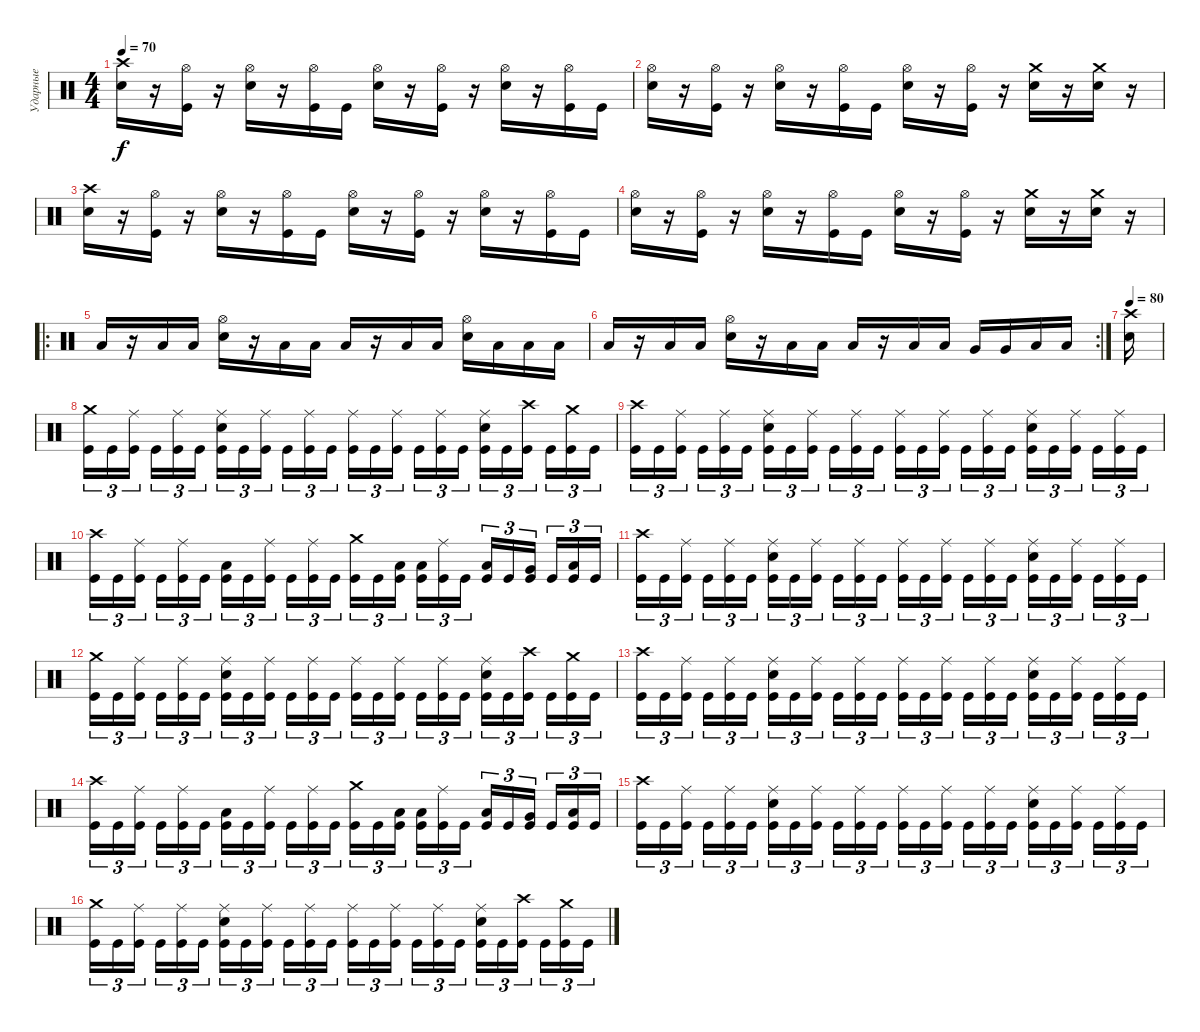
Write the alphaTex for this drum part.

\track ("Ударные" "Ударные") {instrument percussion}
\staff {score}
\articulation defaults
\ts (4 4)
\tempo 70
\clef neutral
\ks c
("Crash high (hit)" "Electric Snare (hit)").16{dy f} r.16 ("Hi-Hat (open)" "Kick (hit)").16 r.16 ("Hi-Hat (open)" "Electric Snare (hit)").16 r.16 ("Hi-Hat (open)" "Kick (hit)").16 "Kick (hit)".16 ("Hi-Hat (open)" "Electric Snare (hit)").16 r.16 ("Hi-Hat (open)" "Kick (hit)").16 r.16 ("Hi-Hat (open)" "Electric Snare (hit)").16 r.16 ("Hi-Hat (open)" "Kick (hit)").16 "Kick (hit)".16 |
("Hi-Hat (open)" "Electric Snare (hit)").16 r.16 ("Hi-Hat (open)" "Kick (hit)").16 r.16 ("Hi-Hat (open)" "Electric Snare (hit)").16 r.16 ("Hi-Hat (open)" "Kick (hit)").16 "Kick (hit)".16 ("Hi-Hat (open)" "Electric Snare (hit)").16 r.16 ("Hi-Hat (open)" "Kick (hit)").16 r.16 ("Crash medium (hit)" "Electric Snare (hit)").16 r.16 ("Crash medium (hit)" "Electric Snare (hit)").16 r.16 |
("Crash high (hit)" "Electric Snare (hit)").16 r.16 ("Hi-Hat (open)" "Kick (hit)").16 r.16 ("Hi-Hat (open)" "Electric Snare (hit)").16 r.16 ("Hi-Hat (open)" "Kick (hit)").16 "Kick (hit)".16 ("Hi-Hat (open)" "Electric Snare (hit)").16 r.16 ("Hi-Hat (open)" "Kick (hit)").16 r.16 ("Hi-Hat (open)" "Electric Snare (hit)").16 r.16 ("Hi-Hat (open)" "Kick (hit)").16 "Kick (hit)".16 |
("Hi-Hat (open)" "Electric Snare (hit)").16 r.16 ("Hi-Hat (open)" "Kick (hit)").16 r.16 ("Hi-Hat (open)" "Electric Snare (hit)").16 r.16 ("Hi-Hat (open)" "Kick (hit)").16 "Kick (hit)".16 ("Hi-Hat (open)" "Electric Snare (hit)").16 r.16 ("Hi-Hat (open)" "Kick (hit)").16 r.16 ("Crash medium (hit)" "Electric Snare (hit)").16 r.16 ("Crash medium (hit)" "Electric Snare (hit)").16 r.16 |
\ro "Low Floor Tom (hit)".16
r.16 "Low Floor Tom (hit)".16 "Low Floor Tom (hit)".16 ("Hi-Hat (open)" "Electric Snare (hit)").16 r.16 "Low Floor Tom (hit)".16 "Low Floor Tom (hit)".16 "Low Floor Tom (hit)".16 r.16 "Low Floor Tom (hit)".16 "Low Floor Tom (hit)".16 ("Hi-Hat (open)" "Electric Snare (hit)").16 "Low Floor Tom (hit)".16 "Low Floor Tom (hit)".16 "Low Floor Tom (hit)".16 |
\rc 2 "Low Floor Tom (hit)".16
r.16 "Low Floor Tom (hit)".16 "Low Floor Tom (hit)".16 ("Hi-Hat (open)" "Electric Snare (hit)").16 r.16 "Low Floor Tom (hit)".16 "Low Floor Tom (hit)".16 "Low Floor Tom (hit)".16 r.16 "Low Tom (hit)".16 "Low Tom (hit)".16 "Very Low Tom (hit)".16 "Very Low Tom (hit)".16 "Low Floor Tom (hit)".16 "Low Floor Tom (hit)".16 |
\tempo 80
("Crash high (hit)" "Electric Snare (hit)").16 |
("Crash medium (hit)" "Kick (hit)").16{tu (3 2)} "Kick (hit)".16{tu (3 2)} ("Ride (middle)" "Kick (hit)").16{tu (3 2)} "Kick (hit)".16{tu (3 2)} ("Ride (middle)" "Kick (hit)").16{tu (3 2)} "Kick (hit)".16{tu (3 2)} ("Ride (middle)" "Electric Snare (hit)" "Kick (hit)").16{tu (3 2)} "Kick (hit)".16{tu (3 2)} ("Ride (middle)" "Kick (hit)").16{tu (3 2)} "Kick (hit)".16{tu (3 2)} ("Ride (middle)" "Kick (hit)").16{tu (3 2)} "Kick (hit)".16{tu (3 2)} ("Ride (middle)" "Kick (hit)").16{tu (3 2)} "Kick (hit)".16{tu (3 2)} ("Ride (middle)" "Kick (hit)").16{tu (3 2)} "Kick (hit)".16{tu (3 2)} ("Ride (middle)" "Kick (hit)").16{tu (3 2)} "Kick (hit)".16{tu (3 2)} ("Ride (middle)" "Electric Snare (hit)" "Kick (hit)").16{tu (3 2)} "Kick (hit)".16{tu (3 2)} ("Crash high (hit)" "Kick (hit)").16{tu (3 2)} "Kick (hit)".16{tu (3 2)} ("Crash medium (hit)" "Kick (hit)").16{tu (3 2)} "Kick (hit)".16{tu (3 2)} |
("Crash high (hit)" "Kick (hit)").16{tu (3 2)} "Kick (hit)".16{tu (3 2)} ("Ride (middle)" "Kick (hit)").16{tu (3 2)} "Kick (hit)".16{tu (3 2)} ("Ride (middle)" "Kick (hit)").16{tu (3 2)} "Kick (hit)".16{tu (3 2)} ("Ride (middle)" "Electric Snare (hit)" "Kick (hit)").16{tu (3 2)} "Kick (hit)".16{tu (3 2)} ("Ride (middle)" "Kick (hit)").16{tu (3 2)} "Kick (hit)".16{tu (3 2)} ("Ride (middle)" "Kick (hit)").16{tu (3 2)} "Kick (hit)".16{tu (3 2)} ("Ride (middle)" "Kick (hit)").16{tu (3 2)} "Kick (hit)".16{tu (3 2)} ("Ride (middle)" "Kick (hit)").16{tu (3 2)} "Kick (hit)".16{tu (3 2)} ("Ride (middle)" "Kick (hit)").16{tu (3 2)} "Kick (hit)".16{tu (3 2)} ("Ride (middle)" "Electric Snare (hit)" "Kick (hit)").16{tu (3 2)} "Kick (hit)".16{tu (3 2)} ("Ride (middle)" "Kick (hit)").16{tu (3 2)} "Kick (hit)".16{tu (3 2)} ("Ride (middle)" "Kick (hit)").16{tu (3 2)} "Kick (hit)".16{tu (3 2)} |
("Crash high (hit)" "Kick (hit)").16{tu (3 2)} "Kick (hit)".16{tu (3 2)} ("Ride (middle)" "Kick (hit)").16{tu (3 2)} "Kick (hit)".16{tu (3 2)} ("Ride (middle)" "Kick (hit)").16{tu (3 2)} "Kick (hit)".16{tu (3 2)} ("Low Floor Tom (hit)" "Kick (hit)").16{tu (3 2)} "Kick (hit)".16{tu (3 2)} ("Ride (middle)" "Kick (hit)").16{tu (3 2)} "Kick (hit)".16{tu (3 2)} ("Ride (middle)" "Kick (hit)").16{tu (3 2)} "Kick (hit)".16{tu (3 2)} ("Crash medium (hit)" "Kick (hit)").16{tu (3 2)} "Kick (hit)".16{tu (3 2)} ("Low Floor Tom (hit)" "Kick (hit)").16{tu (3 2)} ("Low Floor Tom (hit)" "Kick (hit)").16{tu (3 2)} ("Ride (middle)" "Kick (hit)").16{tu (3 2)} "Kick (hit)".16{tu (3 2)} ("Low Tom (hit)" "Kick (hit)").16{tu (3 2)} "Kick (hit)".16{tu (3 2)} ("Very Low Tom (hit)" "Kick (hit)").16{tu (3 2)} "Kick (hit)".16{tu (3 2)} ("Low Floor Tom (hit)" "Kick (hit)").16{tu (3 2)} "Kick (hit)".16{tu (3 2)} |
("Crash high (hit)" "Kick (hit)").16{tu (3 2)} "Kick (hit)".16{tu (3 2)} ("Ride (middle)" "Kick (hit)").16{tu (3 2)} "Kick (hit)".16{tu (3 2)} ("Ride (middle)" "Kick (hit)").16{tu (3 2)} "Kick (hit)".16{tu (3 2)} ("Ride (middle)" "Electric Snare (hit)" "Kick (hit)").16{tu (3 2)} "Kick (hit)".16{tu (3 2)} ("Ride (middle)" "Kick (hit)").16{tu (3 2)} "Kick (hit)".16{tu (3 2)} ("Ride (middle)" "Kick (hit)").16{tu (3 2)} "Kick (hit)".16{tu (3 2)} ("Ride (middle)" "Kick (hit)").16{tu (3 2)} "Kick (hit)".16{tu (3 2)} ("Ride (middle)" "Kick (hit)").16{tu (3 2)} "Kick (hit)".16{tu (3 2)} ("Ride (middle)" "Kick (hit)").16{tu (3 2)} "Kick (hit)".16{tu (3 2)} ("Ride (middle)" "Electric Snare (hit)" "Kick (hit)").16{tu (3 2)} "Kick (hit)".16{tu (3 2)} ("Ride (middle)" "Kick (hit)").16{tu (3 2)} "Kick (hit)".16{tu (3 2)} ("Ride (middle)" "Kick (hit)").16{tu (3 2)} "Kick (hit)".16{tu (3 2)} |
("Crash medium (hit)" "Kick (hit)").16{tu (3 2)} "Kick (hit)".16{tu (3 2)} ("Ride (middle)" "Kick (hit)").16{tu (3 2)} "Kick (hit)".16{tu (3 2)} ("Ride (middle)" "Kick (hit)").16{tu (3 2)} "Kick (hit)".16{tu (3 2)} ("Ride (middle)" "Electric Snare (hit)" "Kick (hit)").16{tu (3 2)} "Kick (hit)".16{tu (3 2)} ("Ride (middle)" "Kick (hit)").16{tu (3 2)} "Kick (hit)".16{tu (3 2)} ("Ride (middle)" "Kick (hit)").16{tu (3 2)} "Kick (hit)".16{tu (3 2)} ("Ride (middle)" "Kick (hit)").16{tu (3 2)} "Kick (hit)".16{tu (3 2)} ("Ride (middle)" "Kick (hit)").16{tu (3 2)} "Kick (hit)".16{tu (3 2)} ("Ride (middle)" "Kick (hit)").16{tu (3 2)} "Kick (hit)".16{tu (3 2)} ("Ride (middle)" "Electric Snare (hit)" "Kick (hit)").16{tu (3 2)} "Kick (hit)".16{tu (3 2)} ("Crash high (hit)" "Kick (hit)").16{tu (3 2)} "Kick (hit)".16{tu (3 2)} ("Crash medium (hit)" "Kick (hit)").16{tu (3 2)} "Kick (hit)".16{tu (3 2)} |
("Crash high (hit)" "Kick (hit)").16{tu (3 2)} "Kick (hit)".16{tu (3 2)} ("Ride (middle)" "Kick (hit)").16{tu (3 2)} "Kick (hit)".16{tu (3 2)} ("Ride (middle)" "Kick (hit)").16{tu (3 2)} "Kick (hit)".16{tu (3 2)} ("Ride (middle)" "Electric Snare (hit)" "Kick (hit)").16{tu (3 2)} "Kick (hit)".16{tu (3 2)} ("Ride (middle)" "Kick (hit)").16{tu (3 2)} "Kick (hit)".16{tu (3 2)} ("Ride (middle)" "Kick (hit)").16{tu (3 2)} "Kick (hit)".16{tu (3 2)} ("Ride (middle)" "Kick (hit)").16{tu (3 2)} "Kick (hit)".16{tu (3 2)} ("Ride (middle)" "Kick (hit)").16{tu (3 2)} "Kick (hit)".16{tu (3 2)} ("Ride (middle)" "Kick (hit)").16{tu (3 2)} "Kick (hit)".16{tu (3 2)} ("Ride (middle)" "Electric Snare (hit)" "Kick (hit)").16{tu (3 2)} "Kick (hit)".16{tu (3 2)} ("Ride (middle)" "Kick (hit)").16{tu (3 2)} "Kick (hit)".16{tu (3 2)} ("Ride (middle)" "Kick (hit)").16{tu (3 2)} "Kick (hit)".16{tu (3 2)} |
("Crash high (hit)" "Kick (hit)").16{tu (3 2)} "Kick (hit)".16{tu (3 2)} ("Ride (middle)" "Kick (hit)").16{tu (3 2)} "Kick (hit)".16{tu (3 2)} ("Ride (middle)" "Kick (hit)").16{tu (3 2)} "Kick (hit)".16{tu (3 2)} ("Low Floor Tom (hit)" "Kick (hit)").16{tu (3 2)} "Kick (hit)".16{tu (3 2)} ("Ride (middle)" "Kick (hit)").16{tu (3 2)} "Kick (hit)".16{tu (3 2)} ("Ride (middle)" "Kick (hit)").16{tu (3 2)} "Kick (hit)".16{tu (3 2)} ("Crash medium (hit)" "Kick (hit)").16{tu (3 2)} "Kick (hit)".16{tu (3 2)} ("Low Floor Tom (hit)" "Kick (hit)").16{tu (3 2)} ("Low Floor Tom (hit)" "Kick (hit)").16{tu (3 2)} ("Ride (middle)" "Kick (hit)").16{tu (3 2)} "Kick (hit)".16{tu (3 2)} ("Low Tom (hit)" "Kick (hit)").16{tu (3 2)} "Kick (hit)".16{tu (3 2)} ("Very Low Tom (hit)" "Kick (hit)").16{tu (3 2)} "Kick (hit)".16{tu (3 2)} ("Low Floor Tom (hit)" "Kick (hit)").16{tu (3 2)} "Kick (hit)".16{tu (3 2)} |
("Crash high (hit)" "Kick (hit)").16{tu (3 2)} "Kick (hit)".16{tu (3 2)} ("Ride (middle)" "Kick (hit)").16{tu (3 2)} "Kick (hit)".16{tu (3 2)} ("Ride (middle)" "Kick (hit)").16{tu (3 2)} "Kick (hit)".16{tu (3 2)} ("Ride (middle)" "Electric Snare (hit)" "Kick (hit)").16{tu (3 2)} "Kick (hit)".16{tu (3 2)} ("Ride (middle)" "Kick (hit)").16{tu (3 2)} "Kick (hit)".16{tu (3 2)} ("Ride (middle)" "Kick (hit)").16{tu (3 2)} "Kick (hit)".16{tu (3 2)} ("Ride (middle)" "Kick (hit)").16{tu (3 2)} "Kick (hit)".16{tu (3 2)} ("Ride (middle)" "Kick (hit)").16{tu (3 2)} "Kick (hit)".16{tu (3 2)} ("Ride (middle)" "Kick (hit)").16{tu (3 2)} "Kick (hit)".16{tu (3 2)} ("Ride (middle)" "Electric Snare (hit)" "Kick (hit)").16{tu (3 2)} "Kick (hit)".16{tu (3 2)} ("Ride (middle)" "Kick (hit)").16{tu (3 2)} "Kick (hit)".16{tu (3 2)} ("Ride (middle)" "Kick (hit)").16{tu (3 2)} "Kick (hit)".16{tu (3 2)} |
("Crash medium (hit)" "Kick (hit)").16{tu (3 2)} "Kick (hit)".16{tu (3 2)} ("Ride (middle)" "Kick (hit)").16{tu (3 2)} "Kick (hit)".16{tu (3 2)} ("Ride (middle)" "Kick (hit)").16{tu (3 2)} "Kick (hit)".16{tu (3 2)} ("Ride (middle)" "Electric Snare (hit)" "Kick (hit)").16{tu (3 2)} "Kick (hit)".16{tu (3 2)} ("Ride (middle)" "Kick (hit)").16{tu (3 2)} "Kick (hit)".16{tu (3 2)} ("Ride (middle)" "Kick (hit)").16{tu (3 2)} "Kick (hit)".16{tu (3 2)} ("Ride (middle)" "Kick (hit)").16{tu (3 2)} "Kick (hit)".16{tu (3 2)} ("Ride (middle)" "Kick (hit)").16{tu (3 2)} "Kick (hit)".16{tu (3 2)} ("Ride (middle)" "Kick (hit)").16{tu (3 2)} "Kick (hit)".16{tu (3 2)} ("Ride (middle)" "Electric Snare (hit)" "Kick (hit)").16{tu (3 2)} "Kick (hit)".16{tu (3 2)} ("Crash high (hit)" "Kick (hit)").16{tu (3 2)} "Kick (hit)".16{tu (3 2)} ("Crash medium (hit)" "Kick (hit)").16{tu (3 2)} "Kick (hit)".16{tu (3 2)}
